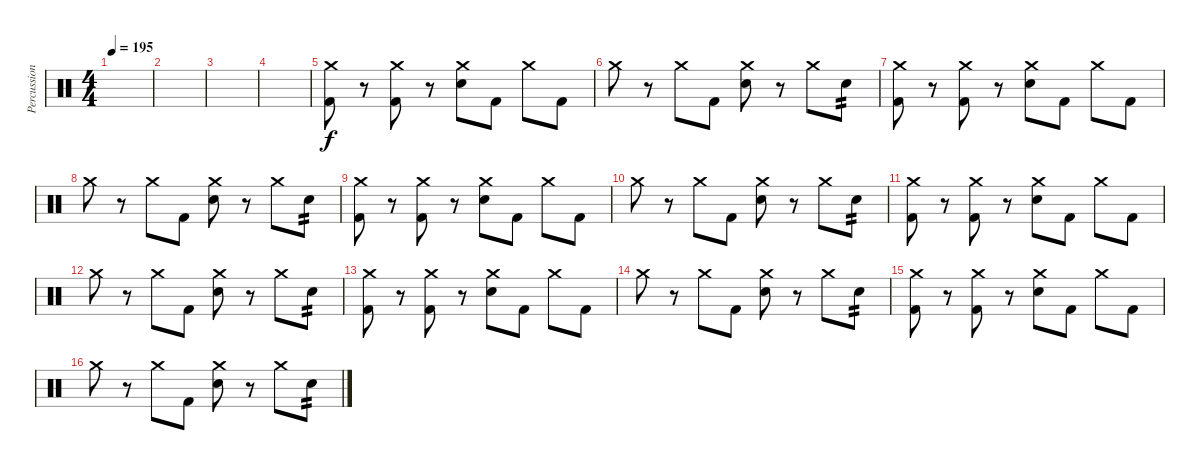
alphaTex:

\track ("Percussion" "Percussion") {instrument percussion}
\staff {score}
\articulation defaults
\ts (4 4)
\tempo 195
\clef neutral
\ks c
|
|
|
|
("Crash medium (hit)" "Kick (hit) 2").8 r.8 ("Crash medium (hit)" "Kick (hit) 2").8 r.8 ("Crash medium (hit)" "Electric Snare (hit)").8 "Kick (hit) 2".8 "Crash medium (hit)".8 "Kick (hit) 2".8 |
"Crash medium (hit)".8 r.8 "Crash medium (hit)".8 "Kick (hit) 2".8 ("Crash medium (hit)" "Electric Snare (hit)").8 r.8 "Crash medium (hit)".8 "Electric Snare (hit)".8{tp 2} |
("Crash medium (hit)" "Kick (hit) 2").8 r.8 ("Crash medium (hit)" "Kick (hit) 2").8 r.8 ("Crash medium (hit)" "Electric Snare (hit)").8 "Kick (hit) 2".8 "Crash medium (hit)".8 "Kick (hit) 2".8 |
"Crash medium (hit)".8 r.8 "Crash medium (hit)".8 "Kick (hit) 2".8 ("Crash medium (hit)" "Electric Snare (hit)").8 r.8 "Crash medium (hit)".8 "Electric Snare (hit)".8{tp 2} |
("Crash medium (hit)" "Kick (hit) 2").8 r.8 ("Crash medium (hit)" "Kick (hit) 2").8 r.8 ("Crash medium (hit)" "Electric Snare (hit)").8 "Kick (hit) 2".8 "Crash medium (hit)".8 "Kick (hit) 2".8 |
"Crash medium (hit)".8 r.8 "Crash medium (hit)".8 "Kick (hit) 2".8 ("Crash medium (hit)" "Electric Snare (hit)").8 r.8 "Crash medium (hit)".8 "Electric Snare (hit)".8{tp 2} |
("Crash medium (hit)" "Kick (hit) 2").8 r.8 ("Crash medium (hit)" "Kick (hit) 2").8 r.8 ("Crash medium (hit)" "Electric Snare (hit)").8 "Kick (hit) 2".8 "Crash medium (hit)".8 "Kick (hit) 2".8 |
"Crash medium (hit)".8 r.8 "Crash medium (hit)".8 "Kick (hit) 2".8 ("Crash medium (hit)" "Electric Snare (hit)").8 r.8 "Crash medium (hit)".8 "Electric Snare (hit)".8{tp 2} |
("Crash medium (hit)" "Kick (hit) 2").8 r.8 ("Crash medium (hit)" "Kick (hit) 2").8 r.8 ("Crash medium (hit)" "Electric Snare (hit)").8 "Kick (hit) 2".8 "Crash medium (hit)".8 "Kick (hit) 2".8 |
"Crash medium (hit)".8 r.8 "Crash medium (hit)".8 "Kick (hit) 2".8 ("Crash medium (hit)" "Electric Snare (hit)").8 r.8 "Crash medium (hit)".8 "Electric Snare (hit)".8{tp 2} |
("Crash medium (hit)" "Kick (hit) 2").8 r.8 ("Crash medium (hit)" "Kick (hit) 2").8 r.8 ("Crash medium (hit)" "Electric Snare (hit)").8 "Kick (hit) 2".8 "Crash medium (hit)".8 "Kick (hit) 2".8 |
"Crash medium (hit)".8 r.8 "Crash medium (hit)".8 "Kick (hit) 2".8 ("Crash medium (hit)" "Electric Snare (hit)").8 r.8 "Crash medium (hit)".8 "Electric Snare (hit)".8{tp 2}
